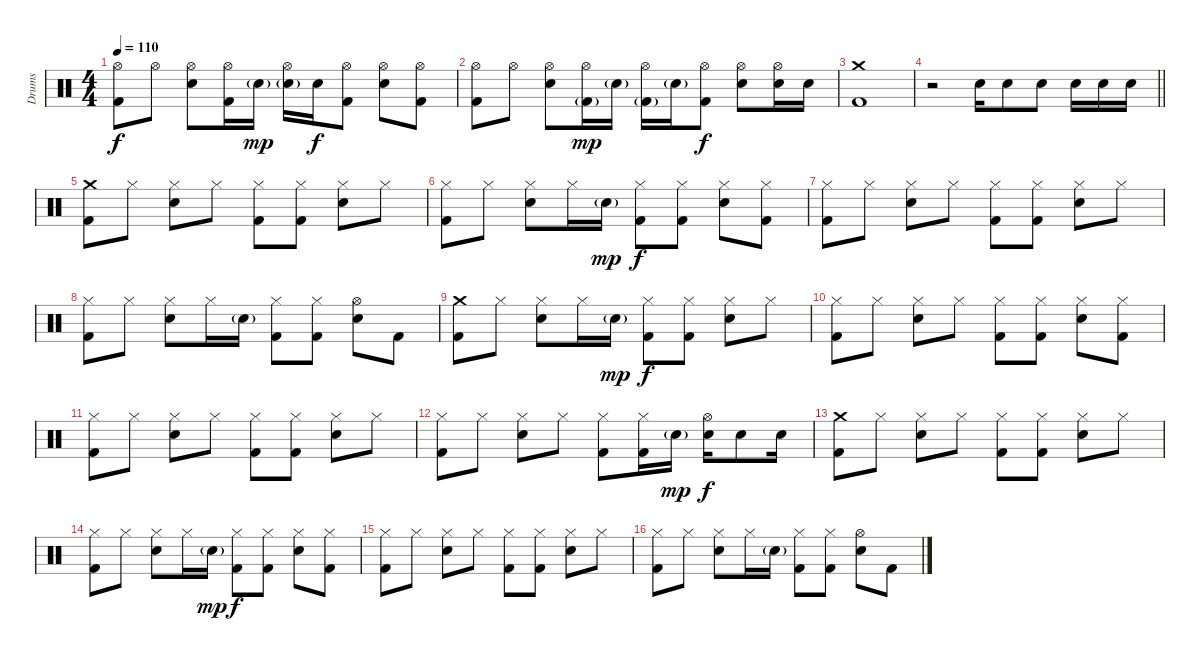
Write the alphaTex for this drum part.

\track ("Drums" "Drums") {instrument percussion}
\staff {score}
\articulation defaults
\ts (4 4)
\tempo 110
\clef neutral
\ks c
("Hi-Hat (open)" "Kick (hit) 2").8{dy f} "Hi-Hat (open)".8 ("Hi-Hat (open)" "Electric Snare (hit)").8 ("Hi-Hat (open)" "Kick (hit) 2").16 "Electric Snare (hit)"{g}.16{dy mp} ("Hi-Hat (open)" "Electric Snare (hit)"{g}).16 "Electric Snare (hit)".16{dy f} ("Hi-Hat (open)" "Kick (hit) 2").8 ("Hi-Hat (open)" "Electric Snare (hit)").8 ("Hi-Hat (open)" "Kick (hit) 2").8 |
("Hi-Hat (open)" "Kick (hit) 2").8 "Hi-Hat (open)".8 ("Hi-Hat (open)" "Electric Snare (hit)").8 ("Hi-Hat (open)" "Kick (hit) 2"{g}).16{dy mp} "Electric Snare (hit)"{g}.16 ("Hi-Hat (open)" "Kick (hit) 2"{g}).16 "Electric Snare (hit)"{g}.16 ("Hi-Hat (open)" "Kick (hit) 2").8{dy f} ("Hi-Hat (open)" "Electric Snare (hit)").8 ("Hi-Hat (open)" "Electric Snare (hit)").16 "Electric Snare (hit)".16 |
("Crash medium (hit)" "Kick (hit) 2").1 |
\barLineRight lightlight
r.2 "Electric Snare (hit)".16 "Electric Snare (hit)".8 "Electric Snare (hit)".8 "Electric Snare (hit)".16 "Electric Snare (hit)".16 "Electric Snare (hit)".16 |
("Crash medium (hit)" "Kick (hit) 2").8 "Hi-Hat (closed)".8 ("Hi-Hat (closed)" "Electric Snare (hit)").8 "Hi-Hat (closed)".8 ("Hi-Hat (closed)" "Kick (hit) 2").8 ("Hi-Hat (closed)" "Kick (hit) 2").8 ("Hi-Hat (closed)" "Electric Snare (hit)").8 "Hi-Hat (closed)".8 |
("Hi-Hat (closed)" "Kick (hit) 2").8 "Hi-Hat (closed)".8 ("Hi-Hat (closed)" "Electric Snare (hit)").8 "Hi-Hat (closed)".16 "Electric Snare (hit)"{g}.16{dy mp} ("Hi-Hat (closed)" "Kick (hit) 2").8{dy f} ("Hi-Hat (closed)" "Kick (hit) 2").8 ("Hi-Hat (closed)" "Electric Snare (hit)").8 ("Hi-Hat (closed)" "Kick (hit) 2").8 |
("Hi-Hat (closed)" "Kick (hit) 2").8 "Hi-Hat (closed)".8 ("Hi-Hat (closed)" "Electric Snare (hit)").8 "Hi-Hat (closed)".8 ("Hi-Hat (closed)" "Kick (hit) 2").8 ("Hi-Hat (closed)" "Kick (hit) 2").8 ("Hi-Hat (closed)" "Electric Snare (hit)").8 "Hi-Hat (closed)".8 |
("Hi-Hat (closed)" "Kick (hit) 2").8 "Hi-Hat (closed)".8 ("Hi-Hat (closed)" "Electric Snare (hit)").8 "Hi-Hat (closed)".16 "Electric Snare (hit)"{g}.16 ("Hi-Hat (closed)" "Kick (hit) 2").8 ("Hi-Hat (closed)" "Kick (hit) 2").8 ("Hi-Hat (open)" "Electric Snare (hit)").8 "Kick (hit) 2".8 |
("Crash medium (hit)" "Kick (hit) 2").8 "Hi-Hat (closed)".8 ("Hi-Hat (closed)" "Electric Snare (hit)").8 "Hi-Hat (closed)".16 "Electric Snare (hit)"{g}.16{dy mp} ("Hi-Hat (closed)" "Kick (hit) 2").8{dy f} ("Hi-Hat (closed)" "Kick (hit) 2").8 ("Hi-Hat (closed)" "Electric Snare (hit)").8 "Hi-Hat (closed)".8 |
("Hi-Hat (closed)" "Kick (hit) 2").8 "Hi-Hat (closed)".8 ("Hi-Hat (closed)" "Electric Snare (hit)").8 "Hi-Hat (closed)".8 ("Hi-Hat (closed)" "Kick (hit) 2").8 ("Hi-Hat (closed)" "Kick (hit) 2").8 ("Hi-Hat (closed)" "Electric Snare (hit)").8 ("Hi-Hat (closed)" "Kick (hit) 2").8 |
("Hi-Hat (closed)" "Kick (hit) 2").8 "Hi-Hat (closed)".8 ("Hi-Hat (closed)" "Electric Snare (hit)").8 "Hi-Hat (closed)".8 ("Hi-Hat (closed)" "Kick (hit) 2").8 ("Hi-Hat (closed)" "Kick (hit) 2").8 ("Hi-Hat (closed)" "Electric Snare (hit)").8 "Hi-Hat (closed)".8 |
("Hi-Hat (closed)" "Kick (hit) 2").8 "Hi-Hat (closed)".8 ("Hi-Hat (closed)" "Electric Snare (hit)").8 "Hi-Hat (closed)".8 ("Hi-Hat (closed)" "Kick (hit) 2").8 ("Hi-Hat (closed)" "Kick (hit) 2").16 "Electric Snare (hit)"{g}.16{dy mp} ("Hi-Hat (open)" "Electric Snare (hit)").16{dy f} "Electric Snare (hit)".8 "Electric Snare (hit)".16 |
("Crash medium (hit)" "Kick (hit) 2").8 "Hi-Hat (closed)".8 ("Hi-Hat (closed)" "Electric Snare (hit)").8 "Hi-Hat (closed)".8 ("Hi-Hat (closed)" "Kick (hit) 2").8 ("Hi-Hat (closed)" "Kick (hit) 2").8 ("Hi-Hat (closed)" "Electric Snare (hit)").8 "Hi-Hat (closed)".8 |
("Hi-Hat (closed)" "Kick (hit) 2").8 "Hi-Hat (closed)".8 ("Hi-Hat (closed)" "Electric Snare (hit)").8 "Hi-Hat (closed)".16 "Electric Snare (hit)"{g}.16{dy mp} ("Hi-Hat (closed)" "Kick (hit) 2").8{dy f} ("Hi-Hat (closed)" "Kick (hit) 2").8 ("Hi-Hat (closed)" "Electric Snare (hit)").8 ("Hi-Hat (closed)" "Kick (hit) 2").8 |
("Hi-Hat (closed)" "Kick (hit) 2").8 "Hi-Hat (closed)".8 ("Hi-Hat (closed)" "Electric Snare (hit)").8 "Hi-Hat (closed)".8 ("Hi-Hat (closed)" "Kick (hit) 2").8 ("Hi-Hat (closed)" "Kick (hit) 2").8 ("Hi-Hat (closed)" "Electric Snare (hit)").8 "Hi-Hat (closed)".8 |
("Hi-Hat (closed)" "Kick (hit) 2").8 "Hi-Hat (closed)".8 ("Hi-Hat (closed)" "Electric Snare (hit)").8 "Hi-Hat (closed)".16 "Electric Snare (hit)"{g}.16 ("Hi-Hat (closed)" "Kick (hit) 2").8 ("Hi-Hat (closed)" "Kick (hit) 2").8 ("Hi-Hat (open)" "Electric Snare (hit)").8 "Kick (hit) 2".8
